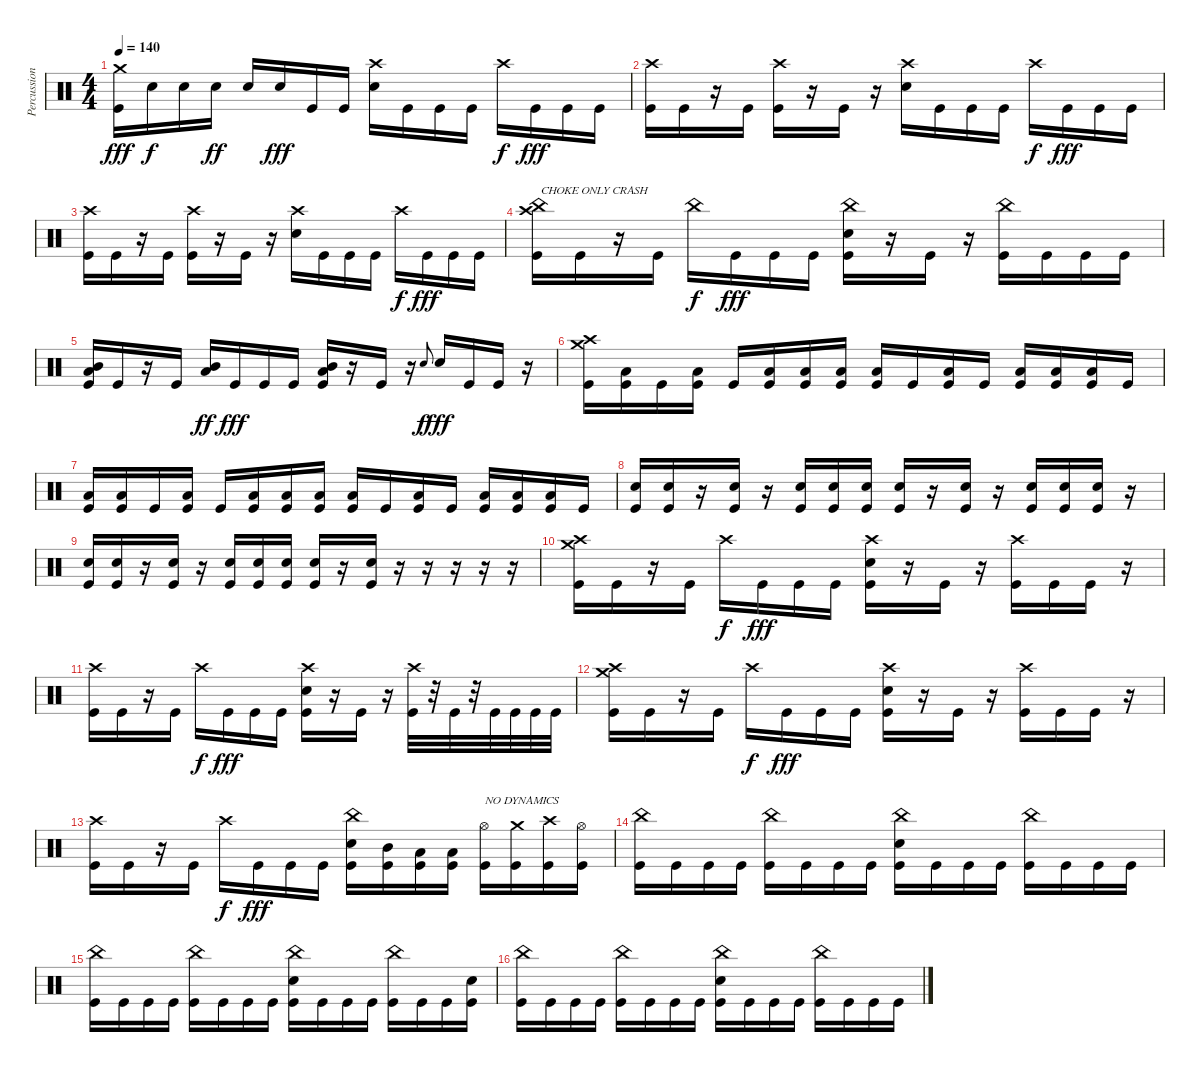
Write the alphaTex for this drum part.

\track ("Percussion" "Percussion") {instrument percussion}
\staff {score}
\articulation defaults
\ts (4 4)
\tempo 140
\clef neutral
\ks c
("Crash medium (hit)" "Kick (hit)").16{dy fff} "Snare (hit) 2".16{dy f} "Snare (hit) 2".16 "Snare (hit) 2".16{dy ff} "Snare (hit) 2".16 "Snare (hit) 2".16{dy fff} "Kick (hit)".16 "Kick (hit)".16 ("Crash high (hit)" "Snare (hit) 2").16 "Kick (hit)".16 "Kick (hit)".16 "Kick (hit)".16 "Crash high (hit)".16{dy f} "Kick (hit)".16{dy fff} "Kick (hit)".16 "Kick (hit)".16 |
("Crash high (hit)" "Kick (hit)").16 "Kick (hit)".16 r.16 "Kick (hit)".16 ("Crash high (hit)" "Kick (hit)").16 r.16 "Kick (hit)".16 r.16 ("Crash high (hit)" "Snare (hit) 2").16 "Kick (hit)".16 "Kick (hit)".16 "Kick (hit)".16 "Crash high (hit)".16{dy f} "Kick (hit)".16{dy fff} "Kick (hit)".16 "Kick (hit)".16 |
("Crash high (hit)" "Kick (hit)").16 "Kick (hit)".16 r.16 "Kick (hit)".16 ("Crash high (hit)" "Kick (hit)").16 r.16 "Kick (hit)".16 r.16 ("Crash high (hit)" "Snare (hit) 2").16 "Kick (hit)".16 "Kick (hit)".16 "Kick (hit)".16 "Crash high (hit)".16{dy f} "Kick (hit)".16{dy fff} "Kick (hit)".16 "Kick (hit)".16 |
("Crash high (hit)" "China (hit)" "Kick (hit)").16{txt "CHOKE ONLY CRASH"} "Kick (hit)".16 r.16 "Kick (hit)".16 "China (hit)".16{dy f} "Kick (hit)".16{dy fff} "Kick (hit)".16 "Kick (hit)".16 ("China (hit)" "Snare (hit) 2" "Kick (hit)").16 r.16 "Kick (hit)".16 r.16 ("China (hit)" "Kick (hit)").16 "Kick (hit)".16 "Kick (hit)".16 "Kick (hit)".16 |
("Mid Tom (hit)" "Low Floor Tom (hit)" "Kick (hit)").16 "Kick (hit)".16 r.16 "Kick (hit)".16 ("Mid Tom (hit)" "Low Floor Tom (hit)").16{dy ff} "Kick (hit)".16{dy fff} "Kick (hit)".16 "Kick (hit)".16 ("Mid Tom (hit)" "Low Floor Tom (hit)" "Kick (hit)").16 r.16 "Kick (hit)".16 r.16 "Snare (hit) 2".8{gr onbeat dy f} "Snare (hit) 2".16{dy fff} "Kick (hit)".16 "Kick (hit)".16 r.16 |
("Crash medium (hit)" "Crash high (hit)" "Kick (hit)").16 ("Low Floor Tom (hit)" "Kick (hit)").16 "Kick (hit)".16 ("Low Floor Tom (hit)" "Kick (hit)").16 "Kick (hit)".16 ("Low Floor Tom (hit)" "Kick (hit)").16 ("Low Floor Tom (hit)" "Kick (hit)").16 ("Low Floor Tom (hit)" "Kick (hit)").16 ("Low Floor Tom (hit)" "Kick (hit)").16 "Kick (hit)".16 ("Low Floor Tom (hit)" "Kick (hit)").16 "Kick (hit)".16 ("Low Floor Tom (hit)" "Kick (hit)").16 ("Low Floor Tom (hit)" "Kick (hit)").16 ("Low Floor Tom (hit)" "Kick (hit)").16 "Kick (hit)".16 |
("Low Floor Tom (hit)" "Kick (hit)").16 ("Low Floor Tom (hit)" "Kick (hit)").16 "Kick (hit)".16 ("Low Floor Tom (hit)" "Kick (hit)").16 "Kick (hit)".16 ("Low Floor Tom (hit)" "Kick (hit)").16 ("Low Floor Tom (hit)" "Kick (hit)").16 ("Low Floor Tom (hit)" "Kick (hit)").16 ("Low Floor Tom (hit)" "Kick (hit)").16 "Kick (hit)".16 ("Low Floor Tom (hit)" "Kick (hit)").16 "Kick (hit)".16 ("Low Floor Tom (hit)" "Kick (hit)").16 ("Low Floor Tom (hit)" "Kick (hit)").16 ("Low Floor Tom (hit)" "Kick (hit)").16 "Kick (hit)".16 |
("Snare (hit) 2" "Kick (hit)").16 ("Snare (hit) 2" "Kick (hit)").16 r.16 ("Snare (hit) 2" "Kick (hit)").16 r.16 ("Snare (hit) 2" "Kick (hit)").16 ("Snare (hit) 2" "Kick (hit)").16 ("Snare (hit) 2" "Kick (hit)").16 ("Snare (hit) 2" "Kick (hit)").16 r.16 ("Snare (hit) 2" "Kick (hit)").16 r.16 ("Snare (hit) 2" "Kick (hit)").16 ("Snare (hit) 2" "Kick (hit)").16 ("Snare (hit) 2" "Kick (hit)").16 r.16 |
("Snare (hit) 2" "Kick (hit)").16 ("Snare (hit) 2" "Kick (hit)").16 r.16 ("Snare (hit) 2" "Kick (hit)").16 r.16 ("Snare (hit) 2" "Kick (hit)").16 ("Snare (hit) 2" "Kick (hit)").16 ("Snare (hit) 2" "Kick (hit)").16 ("Snare (hit) 2" "Kick (hit)").16 r.16 ("Snare (hit) 2" "Kick (hit)").16 r.16 r.16 r.16 r.16 r.16 |
("Crash medium (hit)" "Crash high (hit)" "Kick (hit)").16 "Kick (hit)".16 r.16 "Kick (hit)".16 "Crash high (hit)".16{dy f} "Kick (hit)".16{dy fff} "Kick (hit)".16 "Kick (hit)".16 ("Crash high (hit)" "Snare (hit) 2" "Kick (hit)").16 r.16 "Kick (hit)".16 r.16 ("Crash high (hit)" "Kick (hit)").16 "Kick (hit)".16 "Kick (hit)".16 r.16 |
("Crash high (hit)" "Kick (hit)").16 "Kick (hit)".16 r.16 "Kick (hit)".16 "Crash high (hit)".16{dy f} "Kick (hit)".16{dy fff} "Kick (hit)".16 "Kick (hit)".16 ("Crash high (hit)" "Snare (hit) 2" "Kick (hit)").16 r.16 "Kick (hit)".16 r.16 ("Crash high (hit)" "Kick (hit)").32 r.32 "Kick (hit)".32 r.32 "Kick (hit)".32 "Kick (hit)".32 "Kick (hit)".32 "Kick (hit)".32 |
("Crash medium (hit)" "Crash high (hit)" "Kick (hit)").16 "Kick (hit)".16 r.16 "Kick (hit)".16 "Crash high (hit)".16{dy f} "Kick (hit)".16{dy fff} "Kick (hit)".16 "Kick (hit)".16 ("Crash high (hit)" "Snare (hit) 2" "Kick (hit)").16 r.16 "Kick (hit)".16 r.16 ("Crash high (hit)" "Kick (hit)").16 "Kick (hit)".16 "Kick (hit)".16 r.16 |
("Crash high (hit)" "Kick (hit)").16 "Kick (hit)".16 r.16 "Kick (hit)".16 "Crash high (hit)".16{dy f} "Kick (hit)".16{dy fff} "Kick (hit)".16 "Kick (hit)".16 ("China (hit)" "Snare (hit) 2" "Kick (hit)").16 ("Mid Tom (hit)" "Kick (hit)").16 ("Low Floor Tom (hit)" "Kick (hit)").16 ("Low Floor Tom (hit)" "Kick (hit)").16 ("Hi-Hat (open)" "Kick (hit)").16{txt "NO DYNAMICS"} ("Crash medium (hit)" "Kick (hit)").16 ("Crash high (hit)" "Kick (hit)").16 ("Hi-Hat (open)" "Kick (hit)").16 |
("China (hit)" "Kick (hit)").16 "Kick (hit)".16 "Kick (hit)".16 "Kick (hit)".16 ("China (hit)" "Kick (hit)").16 "Kick (hit)".16 "Kick (hit)".16 "Kick (hit)".16 ("China (hit)" "Snare (hit) 2" "Kick (hit)").16 "Kick (hit)".16 "Kick (hit)".16 "Kick (hit)".16 ("China (hit)" "Kick (hit)").16 "Kick (hit)".16 "Kick (hit)".16 "Kick (hit)".16 |
("China (hit)" "Kick (hit)").16 "Kick (hit)".16 "Kick (hit)".16 "Kick (hit)".16 ("China (hit)" "Kick (hit)").16 "Kick (hit)".16 "Kick (hit)".16 "Kick (hit)".16 ("China (hit)" "Snare (hit) 2" "Kick (hit)").16 "Kick (hit)".16 "Kick (hit)".16 "Kick (hit)".16 ("China (hit)" "Kick (hit)").16 "Kick (hit)".16 "Kick (hit)".16 ("Snare (hit) 2" "Kick (hit)").16 |
("China (hit)" "Kick (hit)").16 "Kick (hit)".16 "Kick (hit)".16 "Kick (hit)".16 ("China (hit)" "Kick (hit)").16 "Kick (hit)".16 "Kick (hit)".16 "Kick (hit)".16 ("China (hit)" "Snare (hit) 2" "Kick (hit)").16 "Kick (hit)".16 "Kick (hit)".16 "Kick (hit)".16 ("China (hit)" "Kick (hit)").16 "Kick (hit)".16 "Kick (hit)".16 "Kick (hit)".16
